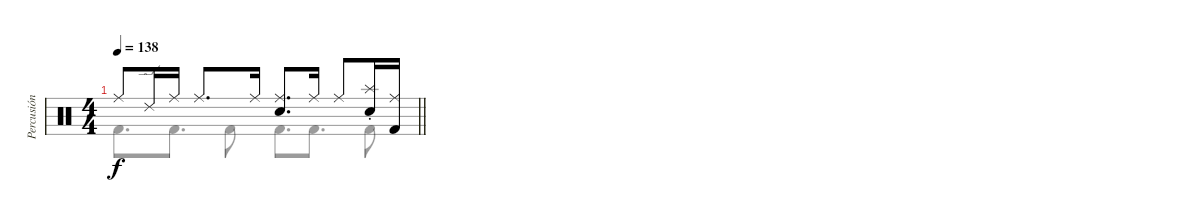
\track ("Percusión" "Percusión") {instrument percussion}
\staff {score}
\articulation defaults
\voice
\ts (4 4)
\tempo 138
\clef neutral
\barLineRight lightlight
\ks c "Ride (middle)".8{dy f} "Ride (edge) 2".16 "Ride (middle)".16 "Ride (middle)".8{d} "Ride (middle)".16
("Electric Snare (hit)" "Ride (middle)").8{d} "Ride (middle)".16 "Ride (middle)".8 ("Electric Snare (hit)" "Splash (choke)").16 ("Kick (hit) 2" "Ride (middle)").16
\voice
\clef neutral
\ottava regular
\simile none
\barLineRight lightlight
\ks c "Kick (hit) 2".8{d dy f} "Kick (hit) 2".8{d} "Kick (hit) 2".8 "Kick (hit) 2".8{d} "Kick (hit) 2".8{d} "Kick (hit) 2".8
